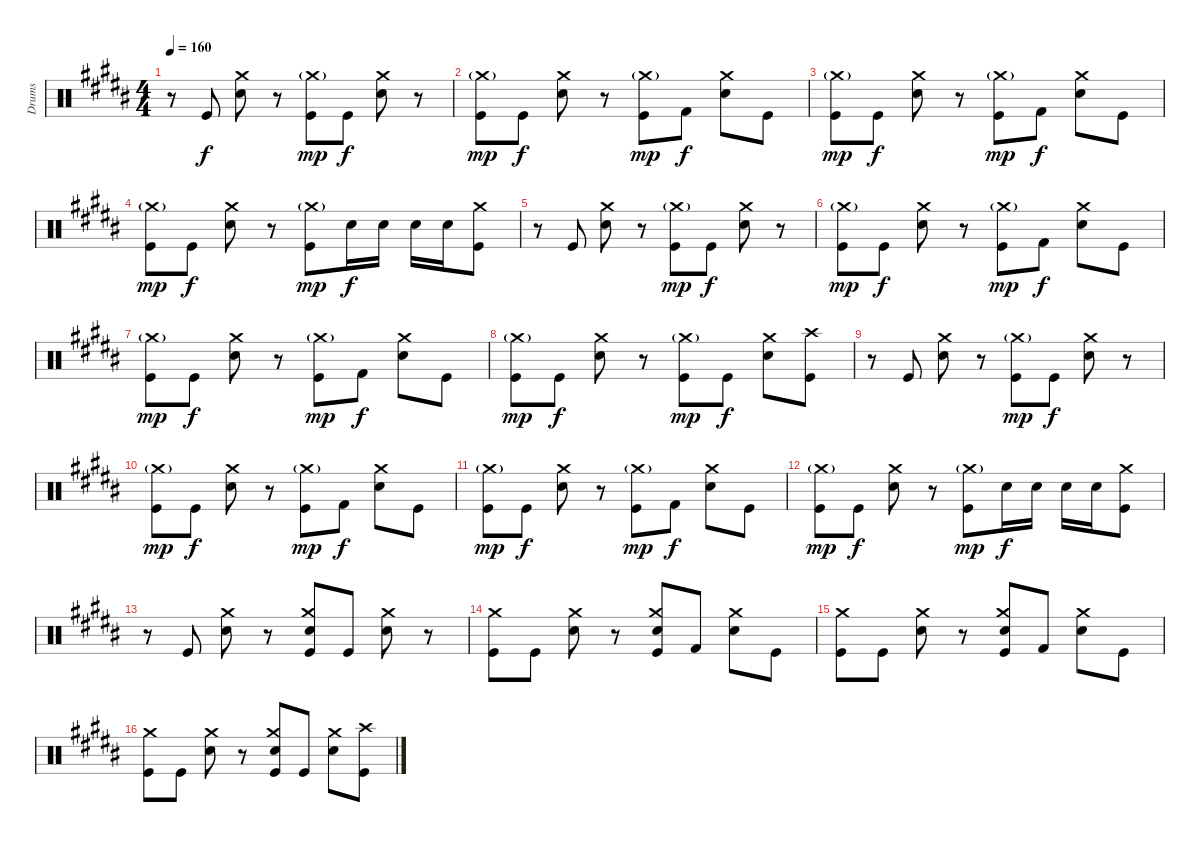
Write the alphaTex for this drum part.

\track ("Drums" "Drums") {instrument percussion}
\staff {score}
\articulation defaults
\ts (4 4)
\tempo 160
\clef neutral
\ks b
r.8{dy f} "Kick (hit)".8 ("Crash medium (hit)" "Snare (hit) 2").8 r.8 ("Crash medium (hit)"{g} "Kick (hit)").8{dy mp} "Kick (hit)".8{dy f} ("Crash medium (hit)" "Snare (hit) 2").8 r.8 |
("Crash medium (hit)"{g} "Kick (hit)").8{dy mp} "Kick (hit)".8{dy f} ("Crash medium (hit)" "Snare (hit) 2").8 r.8 ("Crash medium (hit)"{g} "Kick (hit)").8{dy mp} "Kick (hit) 2".8{dy f} ("Crash medium (hit)" "Snare (hit) 2").8 "Kick (hit)".8 |
("Crash medium (hit)"{g} "Kick (hit)").8{dy mp} "Kick (hit)".8{dy f} ("Crash medium (hit)" "Snare (hit) 2").8 r.8 ("Crash medium (hit)"{g} "Kick (hit)").8{dy mp} "Kick (hit) 2".8{dy f} ("Crash medium (hit)" "Snare (hit) 2").8 "Kick (hit)".8 |
("Crash medium (hit)"{g} "Kick (hit)").8{dy mp} "Kick (hit)".8{dy f} ("Crash medium (hit)" "Snare (hit) 2").8 r.8 ("Crash medium (hit)"{g} "Kick (hit)").8{dy mp} "Snare (hit) 2".16{dy f} "Snare (hit) 2".16 "Snare (hit) 2".16 "Snare (hit) 2".16 ("Crash medium (hit)" "Kick (hit)").8 |
r.8 "Kick (hit)".8 ("Crash medium (hit)" "Snare (hit) 2").8 r.8 ("Crash medium (hit)"{g} "Kick (hit)").8{dy mp} "Kick (hit)".8{dy f} ("Crash medium (hit)" "Snare (hit) 2").8 r.8 |
("Crash medium (hit)"{g} "Kick (hit)").8{dy mp} "Kick (hit)".8{dy f} ("Crash medium (hit)" "Snare (hit) 2").8 r.8 ("Crash medium (hit)"{g} "Kick (hit)").8{dy mp} "Kick (hit) 2".8{dy f} ("Crash medium (hit)" "Snare (hit) 2").8 "Kick (hit)".8 |
("Crash medium (hit)"{g} "Kick (hit)").8{dy mp} "Kick (hit)".8{dy f} ("Crash medium (hit)" "Snare (hit) 2").8 r.8 ("Crash medium (hit)"{g} "Kick (hit)").8{dy mp} "Kick (hit) 2".8{dy f} ("Crash medium (hit)" "Snare (hit) 2").8 "Kick (hit)".8 |
("Crash medium (hit)"{g} "Kick (hit)").8{dy mp} "Kick (hit)".8{dy f} ("Crash medium (hit)" "Snare (hit) 2").8 r.8 ("Crash medium (hit)"{g} "Kick (hit)").8{dy mp} "Kick (hit)".8{dy f} ("Crash medium (hit)" "Snare (hit) 2").8 ("Crash high (hit)" "Kick (hit)").8 |
r.8 "Kick (hit)".8 ("Crash medium (hit)" "Snare (hit) 2").8 r.8 ("Crash medium (hit)"{g} "Kick (hit)").8{dy mp} "Kick (hit)".8{dy f} ("Crash medium (hit)" "Snare (hit) 2").8 r.8 |
("Crash medium (hit)"{g} "Kick (hit)").8{dy mp} "Kick (hit)".8{dy f} ("Crash medium (hit)" "Snare (hit) 2").8 r.8 ("Crash medium (hit)"{g} "Kick (hit)").8{dy mp} "Kick (hit) 2".8{dy f} ("Crash medium (hit)" "Snare (hit) 2").8 "Kick (hit)".8 |
("Crash medium (hit)"{g} "Kick (hit)").8{dy mp} "Kick (hit)".8{dy f} ("Crash medium (hit)" "Snare (hit) 2").8 r.8 ("Crash medium (hit)"{g} "Kick (hit)").8{dy mp} "Kick (hit) 2".8{dy f} ("Crash medium (hit)" "Snare (hit) 2").8 "Kick (hit)".8 |
("Crash medium (hit)"{g} "Kick (hit)").8{dy mp} "Kick (hit)".8{dy f} ("Crash medium (hit)" "Snare (hit) 2").8 r.8 ("Crash medium (hit)"{g} "Kick (hit)").8{dy mp} "Snare (hit) 2".16{dy f} "Snare (hit) 2".16 "Snare (hit) 2".16 "Snare (hit) 2".16 ("Crash medium (hit)" "Kick (hit)").8 |
r.8 "Kick (hit)".8 ("Crash medium (hit)" "Snare (hit) 2").8 r.8 ("Crash medium (hit)" "Snare (hit) 2" "Kick (hit)").8 "Kick (hit)".8 ("Crash medium (hit)" "Snare (hit) 2").8 r.8 |
("Crash medium (hit)" "Kick (hit)").8 "Kick (hit)".8 ("Crash medium (hit)" "Snare (hit) 2").8 r.8 ("Crash medium (hit)" "Snare (hit) 2" "Kick (hit)").8 "Kick (hit) 2".8 ("Crash medium (hit)" "Snare (hit) 2").8 "Kick (hit)".8 |
("Crash medium (hit)" "Kick (hit)").8 "Kick (hit)".8 ("Crash medium (hit)" "Snare (hit) 2").8 r.8 ("Crash medium (hit)" "Snare (hit) 2" "Kick (hit)").8 "Kick (hit) 2".8 ("Crash medium (hit)" "Snare (hit) 2").8 "Kick (hit)".8 |
("Crash medium (hit)" "Kick (hit)").8 "Kick (hit)".8 ("Crash medium (hit)" "Snare (hit) 2").8 r.8 ("Crash medium (hit)" "Snare (hit) 2" "Kick (hit)").8 "Kick (hit)".8 ("Crash medium (hit)" "Snare (hit) 2").8 ("Crash high (hit)" "Kick (hit)").8
